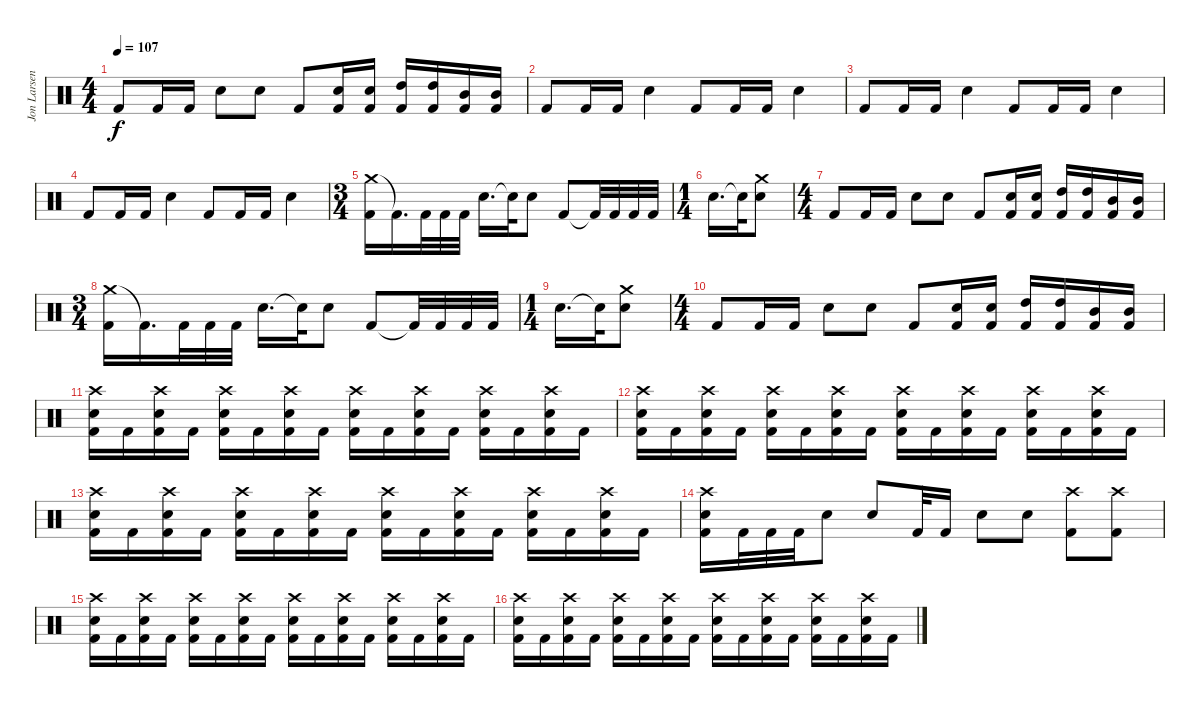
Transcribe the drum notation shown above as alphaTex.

\track ("Jon Larsen (Drums)" "Jon Larsen") {instrument percussion}
\staff {score}
\articulation defaults
\ts (4 4)
\tempo 107
\clef neutral
\ks c "Kick (hit) 2".8{dy f} "Kick (hit) 2".16 "Kick (hit) 2".16 "Electric Snare (hit)".8 "Electric Snare (hit)".8 "Kick (hit) 2".8
("Kick (hit) 2" "Electric Snare (hit)").16 ("Kick (hit) 2" "Electric Snare (hit)").16 ("Kick (hit) 2" "High Tom (hit)").16 ("Kick (hit) 2" "High Tom (hit)").16 ("Kick (hit) 2" "Mid Tom (hit)").16 ("Kick (hit) 2" "Mid Tom (hit)").16 |
"Kick (hit) 2".8 "Kick (hit) 2".16 "Kick (hit) 2".16 "Electric Snare (hit)".4 "Kick (hit) 2".8 "Kick (hit) 2".16 "Kick (hit) 2".16 "Electric Snare (hit)".4 |
"Kick (hit) 2".8 "Kick (hit) 2".16 "Kick (hit) 2".16 "Electric Snare (hit)".4 "Kick (hit) 2".8 "Kick (hit) 2".16 "Kick (hit) 2".16 "Electric Snare (hit)".4 |
"Kick (hit) 2".8 "Kick (hit) 2".16 "Kick (hit) 2".16 "Electric Snare (hit)".4 "Kick (hit) 2".8 "Kick (hit) 2".16 "Kick (hit) 2".16 "Electric Snare (hit)".4 |
\ts (3 4)
("Crash medium (hit)" "Kick (hit) 2").16 "Kick (hit) 2"{t}.16{d} "Kick (hit) 2".32 "Kick (hit) 2".32 "Kick (hit) 2".32 "Electric Snare (hit)".16{d} "Electric Snare (hit)"{t}.32 "Electric Snare (hit)".8 "Kick (hit) 2".8 "Kick (hit) 2"{t}.32 "Kick (hit) 2".32 "Kick (hit) 2".32 "Kick (hit) 2".32 |
\ts (1 4)
"Electric Snare (hit)".16{d} "Electric Snare (hit)"{t}.32 ("Crash medium (hit)" "Electric Snare (hit)").8 |
\ts (4 4)
"Kick (hit) 2".8 "Kick (hit) 2".16 "Kick (hit) 2".16 "Electric Snare (hit)".8 "Electric Snare (hit)".8 "Kick (hit) 2".8 ("Kick (hit) 2" "Electric Snare (hit)").16 ("Kick (hit) 2" "Electric Snare (hit)").16 ("Kick (hit) 2" "High Tom (hit)").16 ("Kick (hit) 2" "High Tom (hit)").16 ("Kick (hit) 2" "Mid Tom (hit)").16 ("Kick (hit) 2" "Mid Tom (hit)").16 |
\ts (3 4)
("Crash medium (hit)" "Kick (hit) 2").16 "Kick (hit) 2"{t}.16{d} "Kick (hit) 2".32 "Kick (hit) 2".32 "Kick (hit) 2".32 "Electric Snare (hit)".16{d} "Electric Snare (hit)"{t}.32 "Electric Snare (hit)".8 "Kick (hit) 2".8 "Kick (hit) 2"{t}.32 "Kick (hit) 2".32 "Kick (hit) 2".32 "Kick (hit) 2".32 |
\ts (1 4)
"Electric Snare (hit)".16{d} "Electric Snare (hit)"{t}.32 ("Crash medium (hit)" "Electric Snare (hit)").8 |
\ts (4 4)
"Kick (hit) 2".8 "Kick (hit) 2".16 "Kick (hit) 2".16 "Electric Snare (hit)".8 "Electric Snare (hit)".8 "Kick (hit) 2".8 ("Kick (hit) 2" "Electric Snare (hit)").16 ("Kick (hit) 2" "Electric Snare (hit)").16 ("Kick (hit) 2" "High Tom (hit)").16 ("Kick (hit) 2" "High Tom (hit)").16 ("Kick (hit) 2" "Mid Tom (hit)").16 ("Kick (hit) 2" "Mid Tom (hit)").16 |
("Crash high (hit)" "Electric Snare (hit)" "Kick (hit) 2").16 "Kick (hit) 2".16 ("Crash high (hit)" "Electric Snare (hit)" "Kick (hit) 2").16 "Kick (hit) 2".16 ("Crash high (hit)" "Electric Snare (hit)" "Kick (hit) 2").16 "Kick (hit) 2".16 ("Crash high (hit)" "Electric Snare (hit)" "Kick (hit) 2").16 "Kick (hit) 2".16 ("Crash high (hit)" "Electric Snare (hit)" "Kick (hit) 2").16 "Kick (hit) 2".16 ("Crash high (hit)" "Electric Snare (hit)" "Kick (hit) 2").16 "Kick (hit) 2".16 ("Crash high (hit)" "Electric Snare (hit)" "Kick (hit) 2").16 "Kick (hit) 2".16 ("Crash high (hit)" "Electric Snare (hit)" "Kick (hit) 2").16 "Kick (hit) 2".16 |
("Crash high (hit)" "Electric Snare (hit)" "Kick (hit) 2").16 "Kick (hit) 2".16 ("Crash high (hit)" "Electric Snare (hit)" "Kick (hit) 2").16 "Kick (hit) 2".16 ("Crash high (hit)" "Electric Snare (hit)" "Kick (hit) 2").16 "Kick (hit) 2".16 ("Crash high (hit)" "Electric Snare (hit)" "Kick (hit) 2").16 "Kick (hit) 2".16 ("Crash high (hit)" "Electric Snare (hit)" "Kick (hit) 2").16 "Kick (hit) 2".16 ("Crash high (hit)" "Electric Snare (hit)" "Kick (hit) 2").16 "Kick (hit) 2".16 ("Crash high (hit)" "Electric Snare (hit)" "Kick (hit) 2").16 "Kick (hit) 2".16 ("Crash high (hit)" "Electric Snare (hit)" "Kick (hit) 2").16 "Kick (hit) 2".16 |
("Crash high (hit)" "Electric Snare (hit)" "Kick (hit) 2").16 "Kick (hit) 2".16 ("Crash high (hit)" "Electric Snare (hit)" "Kick (hit) 2").16 "Kick (hit) 2".16 ("Crash high (hit)" "Electric Snare (hit)" "Kick (hit) 2").16 "Kick (hit) 2".16 ("Crash high (hit)" "Electric Snare (hit)" "Kick (hit) 2").16 "Kick (hit) 2".16 ("Crash high (hit)" "Electric Snare (hit)" "Kick (hit) 2").16 "Kick (hit) 2".16 ("Crash high (hit)" "Electric Snare (hit)" "Kick (hit) 2").16 "Kick (hit) 2".16 ("Crash high (hit)" "Electric Snare (hit)" "Kick (hit) 2").16 "Kick (hit) 2".16 ("Crash high (hit)" "Electric Snare (hit)" "Kick (hit) 2").16 "Kick (hit) 2".16 |
("Crash high (hit)" "Electric Snare (hit)" "Kick (hit) 2").16 "Kick (hit) 2".32 "Kick (hit) 2".32 "Kick (hit) 2".32 "Electric Snare (hit)".8 "Electric Snare (hit)".8 "Kick (hit) 2".32 "Kick (hit) 2".16 "Electric Snare (hit)".8 "Electric Snare (hit)".8 ("Crash high (hit)" "Kick (hit) 2").8 ("Crash high (hit)" "Kick (hit) 2").8 |
("Crash high (hit)" "Electric Snare (hit)" "Kick (hit) 2").16 "Kick (hit) 2".16 ("Crash high (hit)" "Electric Snare (hit)" "Kick (hit) 2").16 "Kick (hit) 2".16 ("Crash high (hit)" "Electric Snare (hit)" "Kick (hit) 2").16 "Kick (hit) 2".16 ("Crash high (hit)" "Electric Snare (hit)" "Kick (hit) 2").16 "Kick (hit) 2".16 ("Crash high (hit)" "Electric Snare (hit)" "Kick (hit) 2").16 "Kick (hit) 2".16 ("Crash high (hit)" "Electric Snare (hit)" "Kick (hit) 2").16 "Kick (hit) 2".16 ("Crash high (hit)" "Electric Snare (hit)" "Kick (hit) 2").16 "Kick (hit) 2".16 ("Crash high (hit)" "Electric Snare (hit)" "Kick (hit) 2").16 "Kick (hit) 2".16 |
("Crash high (hit)" "Electric Snare (hit)" "Kick (hit) 2").16 "Kick (hit) 2".16 ("Crash high (hit)" "Electric Snare (hit)" "Kick (hit) 2").16 "Kick (hit) 2".16 ("Crash high (hit)" "Electric Snare (hit)" "Kick (hit) 2").16 "Kick (hit) 2".16 ("Crash high (hit)" "Electric Snare (hit)" "Kick (hit) 2").16 "Kick (hit) 2".16 ("Crash high (hit)" "Electric Snare (hit)" "Kick (hit) 2").16 "Kick (hit) 2".16 ("Crash high (hit)" "Electric Snare (hit)" "Kick (hit) 2").16 "Kick (hit) 2".16 ("Crash high (hit)" "Electric Snare (hit)" "Kick (hit) 2").16 "Kick (hit) 2".16 ("Crash high (hit)" "Electric Snare (hit)" "Kick (hit) 2").16 "Kick (hit) 2".16
